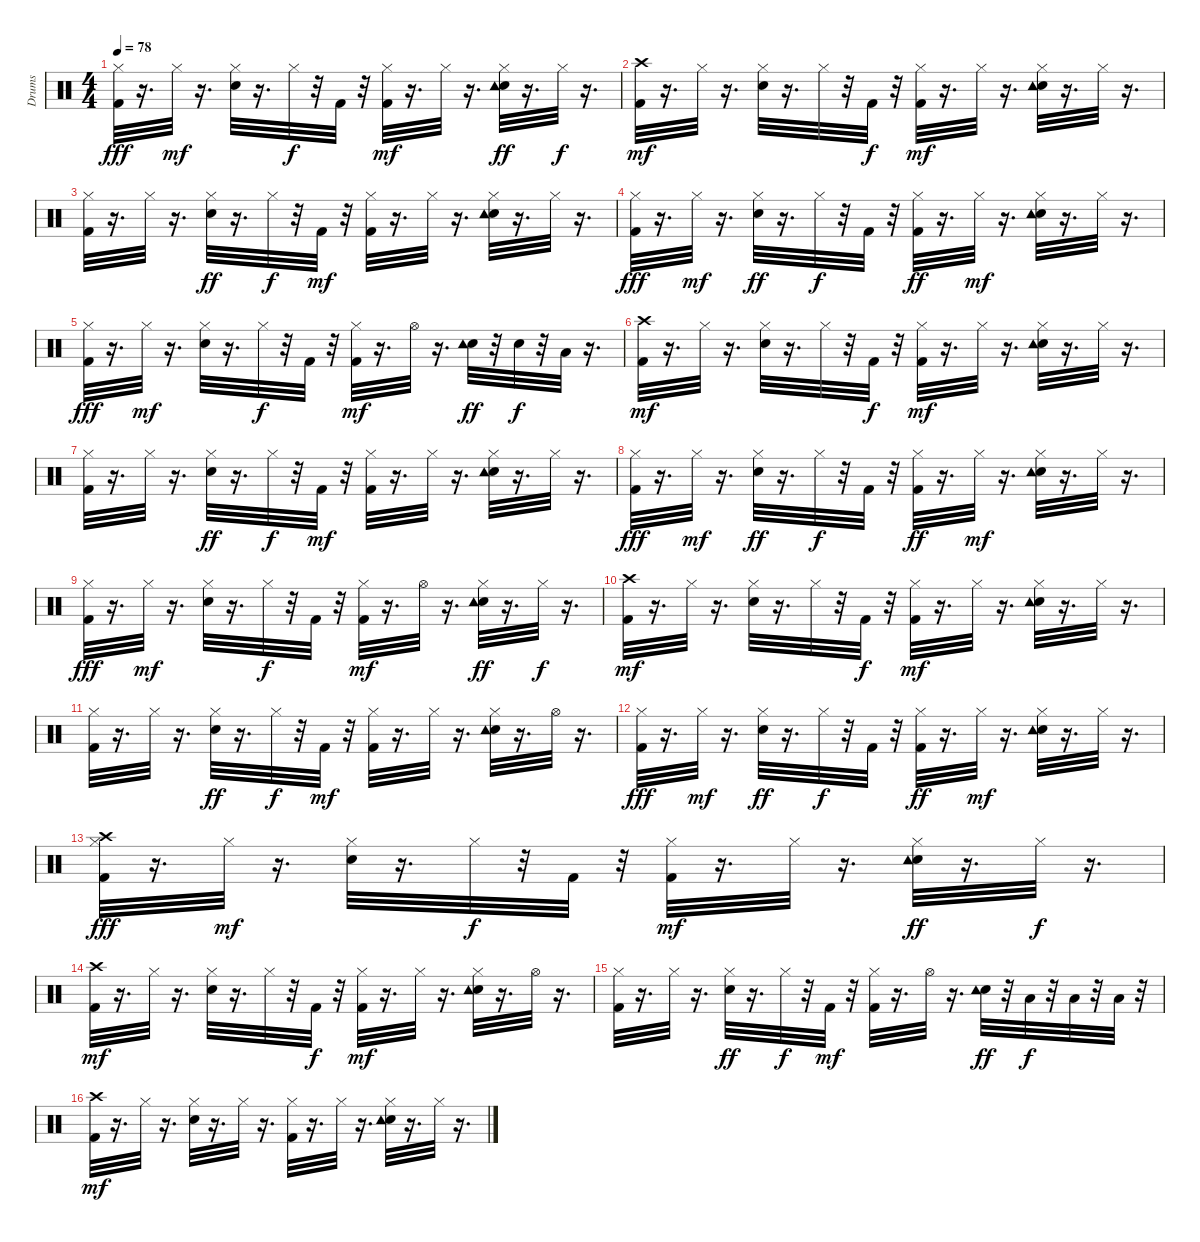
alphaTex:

\track ("Drums   " "Drums   ") {instrument percussion}
\staff {score}
\articulation defaults
\ts (4 4)
\tempo 78
\clef neutral
\ks c
("Hi-Hat (closed)" "Kick (hit) 2").32{dy fff} r.16{d} "Hi-Hat (closed)".32{dy mf} r.16{d} ("Snare (hit) 2" "Hi-Hat (closed)").32 r.16{d} "Hi-Hat (closed)".32{dy f} r.32 "Kick (hit) 2".32 r.32 ("Kick (hit) 2" "Hi-Hat (closed)").32{dy mf} r.16{d} "Hi-Hat (closed)".32 r.16{d} ("Hi-Hat (closed)" "Snare (hit) 2" "Tambourine (hit)").32{dy ff} r.16{d} "Hi-Hat (closed)".32{dy f} r.16{d} |
("Kick (hit) 2" "Crash high (hit)").32{dy mf} r.16{d} "Hi-Hat (closed)".32 r.16{d} ("Snare (hit) 2" "Hi-Hat (closed)").32 r.16{d} "Hi-Hat (closed)".32 r.32 "Kick (hit) 2".32{dy f} r.32 ("Kick (hit) 2" "Hi-Hat (closed)").32{dy mf} r.16{d} "Hi-Hat (closed)".32 r.16{d} ("Snare (hit) 2" "Tambourine (hit)" "Hi-Hat (closed)").32 r.16{d} "Hi-Hat (closed)".32 r.16{d} |
("Kick (hit) 2" "Hi-Hat (closed)").32 r.16{d} "Hi-Hat (closed)".32 r.16{d} ("Hi-Hat (closed)" "Snare (hit) 2").32{dy ff} r.16{d} "Hi-Hat (closed)".32{dy f} r.32 "Kick (hit) 2".32{dy mf} r.32 ("Kick (hit) 2" "Hi-Hat (closed)").32 r.16{d} "Hi-Hat (closed)".32 r.16{d} ("Snare (hit) 2" "Tambourine (hit)" "Hi-Hat (closed)").32 r.16{d} "Hi-Hat (closed)".32 r.16{d} |
("Hi-Hat (closed)" "Kick (hit) 2").32{dy fff} r.16{d} "Hi-Hat (closed)".32{dy mf} r.16{d} ("Snare (hit) 2" "Hi-Hat (closed)").32{dy ff} r.16{d} "Hi-Hat (closed)".32{dy f} r.32 "Kick (hit) 2".32 r.32 ("Hi-Hat (closed)" "Kick (hit) 2").32{dy ff} r.16{d} "Hi-Hat (closed)".32{dy mf} r.16{d} ("Snare (hit) 2" "Tambourine (hit)" "Hi-Hat (closed)").32 r.16{d} "Hi-Hat (closed)".32 r.16{d} |
("Hi-Hat (closed)" "Kick (hit) 2").32{dy fff} r.16{d} "Hi-Hat (closed)".32{dy mf} r.16{d} ("Snare (hit) 2" "Hi-Hat (closed)").32 r.16{d} "Hi-Hat (closed)".32{dy f} r.32 "Kick (hit) 2".32 r.32 ("Kick (hit) 2" "Hi-Hat (closed)").32{dy mf} r.16{d} "Hi-Hat (open)".32 r.16{d} ("Snare (hit) 2" "Tambourine (hit)").32{dy ff} r.32 "Snare (hit) 2".32{dy f} r.32 "Low Floor Tom (hit)".32 r.16{d} |
("Kick (hit) 2" "Crash high (hit)").32{dy mf} r.16{d} "Hi-Hat (closed)".32 r.16{d} ("Snare (hit) 2" "Hi-Hat (closed)").32 r.16{d} "Hi-Hat (closed)".32 r.32 "Kick (hit) 2".32{dy f} r.32 ("Kick (hit) 2" "Hi-Hat (closed)").32{dy mf} r.16{d} "Hi-Hat (closed)".32 r.16{d} ("Snare (hit) 2" "Tambourine (hit)" "Hi-Hat (closed)").32 r.16{d} "Hi-Hat (closed)".32 r.16{d} |
("Kick (hit) 2" "Hi-Hat (closed)").32 r.16{d} "Hi-Hat (closed)".32 r.16{d} ("Hi-Hat (closed)" "Snare (hit) 2").32{dy ff} r.16{d} "Hi-Hat (closed)".32{dy f} r.32 "Kick (hit) 2".32{dy mf} r.32 ("Kick (hit) 2" "Hi-Hat (closed)").32 r.16{d} "Hi-Hat (closed)".32 r.16{d} ("Snare (hit) 2" "Tambourine (hit)" "Hi-Hat (closed)").32 r.16{d} "Hi-Hat (closed)".32 r.16{d} |
("Hi-Hat (closed)" "Kick (hit) 2").32{dy fff} r.16{d} "Hi-Hat (closed)".32{dy mf} r.16{d} ("Snare (hit) 2" "Hi-Hat (closed)").32{dy ff} r.16{d} "Hi-Hat (closed)".32{dy f} r.32 "Kick (hit) 2".32 r.32 ("Hi-Hat (closed)" "Kick (hit) 2").32{dy ff} r.16{d} "Hi-Hat (closed)".32{dy mf} r.16{d} ("Snare (hit) 2" "Tambourine (hit)" "Hi-Hat (closed)").32 r.16{d} "Hi-Hat (closed)".32 r.16{d} |
("Hi-Hat (closed)" "Kick (hit) 2").32{dy fff} r.16{d} "Hi-Hat (closed)".32{dy mf} r.16{d} ("Snare (hit) 2" "Hi-Hat (closed)").32 r.16{d} "Hi-Hat (closed)".32{dy f} r.32 "Kick (hit) 2".32 r.32 ("Kick (hit) 2" "Hi-Hat (closed)").32{dy mf} r.16{d} "Hi-Hat (open)".32 r.16{d} ("Hi-Hat (closed)" "Snare (hit) 2" "Tambourine (hit)").32{dy ff} r.16{d} "Hi-Hat (closed)".32{dy f} r.16{d} |
("Kick (hit) 2" "Crash high (hit)").32{dy mf} r.16{d} "Hi-Hat (closed)".32 r.16{d} ("Snare (hit) 2" "Hi-Hat (closed)").32 r.16{d} "Hi-Hat (closed)".32 r.32 "Kick (hit) 2".32{dy f} r.32 ("Kick (hit) 2" "Hi-Hat (closed)").32{dy mf} r.16{d} "Hi-Hat (closed)".32 r.16{d} ("Snare (hit) 2" "Tambourine (hit)" "Hi-Hat (closed)").32 r.16{d} "Hi-Hat (closed)".32 r.16{d} |
("Kick (hit) 2" "Hi-Hat (closed)").32 r.16{d} "Hi-Hat (closed)".32 r.16{d} ("Hi-Hat (closed)" "Snare (hit) 2").32{dy ff} r.16{d} "Hi-Hat (closed)".32{dy f} r.32 "Kick (hit) 2".32{dy mf} r.32 ("Kick (hit) 2" "Hi-Hat (closed)").32 r.16{d} "Hi-Hat (closed)".32 r.16{d} ("Snare (hit) 2" "Tambourine (hit)" "Hi-Hat (closed)").32 r.16{d} "Hi-Hat (open)".32 r.16{d} |
("Hi-Hat (closed)" "Kick (hit) 2").32{dy fff} r.16{d} "Hi-Hat (closed)".32{dy mf} r.16{d} ("Snare (hit) 2" "Hi-Hat (closed)").32{dy ff} r.16{d} "Hi-Hat (closed)".32{dy f} r.32 "Kick (hit) 2".32 r.32 ("Hi-Hat (closed)" "Kick (hit) 2").32{dy ff} r.16{d} "Hi-Hat (closed)".32{dy mf} r.16{d} ("Snare (hit) 2" "Tambourine (hit)" "Hi-Hat (closed)").32 r.16{d} "Hi-Hat (closed)".32 r.16{d} |
("Hi-Hat (closed)" "Crash high (hit)" "Kick (hit) 2").32{dy fff} r.16{d} "Hi-Hat (closed)".32{dy mf} r.16{d} ("Snare (hit) 2" "Hi-Hat (closed)").32 r.16{d} "Hi-Hat (closed)".32{dy f} r.32 "Kick (hit) 2".32 r.32 ("Kick (hit) 2" "Hi-Hat (closed)").32{dy mf} r.16{d} "Hi-Hat (closed)".32 r.16{d} ("Hi-Hat (closed)" "Snare (hit) 2" "Tambourine (hit)").32{dy ff} r.16{d} "Hi-Hat (closed)".32{dy f} r.16{d} |
("Kick (hit) 2" "Crash high (hit)").32{dy mf} r.16{d} "Hi-Hat (closed)".32 r.16{d} ("Snare (hit) 2" "Hi-Hat (closed)").32 r.16{d} "Hi-Hat (closed)".32 r.32 "Kick (hit) 2".32{dy f} r.32 ("Kick (hit) 2" "Hi-Hat (closed)").32{dy mf} r.16{d} "Hi-Hat (closed)".32 r.16{d} ("Snare (hit) 2" "Tambourine (hit)" "Hi-Hat (closed)").32 r.16{d} "Hi-Hat (open)".32 r.16{d} |
("Kick (hit) 2" "Hi-Hat (closed)").32 r.16{d} "Hi-Hat (closed)".32 r.16{d} ("Hi-Hat (closed)" "Snare (hit) 2").32{dy ff} r.16{d} "Hi-Hat (closed)".32{dy f} r.32 "Kick (hit) 2".32{dy mf} r.32 ("Kick (hit) 2" "Hi-Hat (closed)").32 r.16{d} "Hi-Hat (open)".32 r.16{d} ("Snare (hit) 2" "Tambourine (hit)").32{dy ff} r.32 "Low Tom (hit)".32{dy f} r.32 "Low Floor Tom (hit)".32 r.32 "Low Floor Tom (hit)".32 r.32 |
("Kick (hit) 2" "Crash high (hit)").32{dy mf} r.16{d} "Hi-Hat (closed)".32 r.16{d} ("Snare (hit) 2" "Hi-Hat (closed)").32 r.16{d} "Hi-Hat (closed)".32 r.16{d} ("Kick (hit) 2" "Hi-Hat (closed)").32 r.16{d} "Hi-Hat (closed)".32 r.16{d} ("Snare (hit) 2" "Tambourine (hit)" "Hi-Hat (closed)").32 r.16{d} "Hi-Hat (closed)".32 r.16{d}
